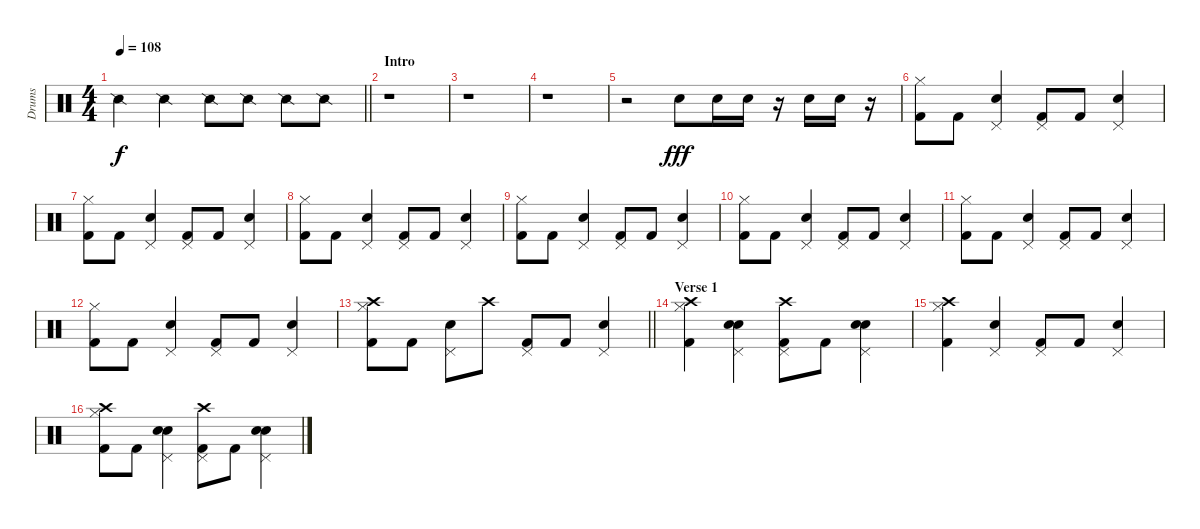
\track ("Drums" "Drums") {instrument percussion}
\staff {score}
\articulation defaults
\ts (4 4)
\tempo 108
\clef neutral
\barLineRight lightlight
\ks c "Snare (side stick) 2".4{dy f} "Snare (side stick) 2".4 "Snare (side stick) 2".8 "Snare (side stick) 2".8 "Snare (side stick) 2".8 "Snare (side stick) 2".8
|
\section ("" "Intro")
r.1 |
r.1 |
r.1 |
r.2 "Electric Snare (hit)".8{dy fff} "Electric Snare (hit)".16 "Electric Snare (hit)".16 r.16 "Electric Snare (hit)".16 "Electric Snare (hit)".16 r.16 |
("Hi-Hat (closed)" "Kick (hit) 2").8 "Kick (hit) 2".8 ("Electric Snare (hit)" "Pedal Hi-Hat (hit)").4 ("Pedal Hi-Hat (hit)" "Kick (hit) 2").8 "Kick (hit) 2".8 ("Electric Snare (hit)" "Pedal Hi-Hat (hit)").4 |
("Hi-Hat (closed)" "Kick (hit) 2").8 "Kick (hit) 2".8 ("Electric Snare (hit)" "Pedal Hi-Hat (hit)").4 ("Pedal Hi-Hat (hit)" "Kick (hit) 2").8 "Kick (hit) 2".8 ("Electric Snare (hit)" "Pedal Hi-Hat (hit)").4 |
("Hi-Hat (closed)" "Kick (hit) 2").8 "Kick (hit) 2".8 ("Electric Snare (hit)" "Pedal Hi-Hat (hit)").4 ("Pedal Hi-Hat (hit)" "Kick (hit) 2").8 "Kick (hit) 2".8 ("Electric Snare (hit)" "Pedal Hi-Hat (hit)").4 |
("Hi-Hat (closed)" "Kick (hit) 2").8 "Kick (hit) 2".8 ("Electric Snare (hit)" "Pedal Hi-Hat (hit)").4 ("Pedal Hi-Hat (hit)" "Kick (hit) 2").8 "Kick (hit) 2".8 ("Electric Snare (hit)" "Pedal Hi-Hat (hit)").4 |
("Hi-Hat (closed)" "Kick (hit) 2").8 "Kick (hit) 2".8 ("Electric Snare (hit)" "Pedal Hi-Hat (hit)").4 ("Pedal Hi-Hat (hit)" "Kick (hit) 2").8 "Kick (hit) 2".8 ("Electric Snare (hit)" "Pedal Hi-Hat (hit)").4 |
("Hi-Hat (closed)" "Kick (hit) 2").8 "Kick (hit) 2".8 ("Electric Snare (hit)" "Pedal Hi-Hat (hit)").4 ("Pedal Hi-Hat (hit)" "Kick (hit) 2").8 "Kick (hit) 2".8 ("Electric Snare (hit)" "Pedal Hi-Hat (hit)").4 |
("Hi-Hat (closed)" "Kick (hit) 2").8 "Kick (hit) 2".8 ("Electric Snare (hit)" "Pedal Hi-Hat (hit)").4 ("Pedal Hi-Hat (hit)" "Kick (hit) 2").8 "Kick (hit) 2".8 ("Electric Snare (hit)" "Pedal Hi-Hat (hit)").4 |
\barLineRight lightlight
("Hi-Hat (closed)" "Kick (hit) 2" "Crash high (hit)").8 "Kick (hit) 2".8 ("Electric Snare (hit)" "Pedal Hi-Hat (hit)").8 "Crash high (hit)".8 ("Pedal Hi-Hat (hit)" "Kick (hit) 2").8 "Kick (hit) 2".8 ("Electric Snare (hit)" "Pedal Hi-Hat (hit)").4 |
\section ("" "Verse 1")
("Hi-Hat (closed)" "Kick (hit) 2" "Crash high (hit)").4 ("Electric Snare (hit)" "Pedal Hi-Hat (hit)" "Snare (hit) 2").4 ("Pedal Hi-Hat (hit)" "Kick (hit) 2" "Crash high (hit)").8 "Kick (hit) 2".8 ("Electric Snare (hit)" "Pedal Hi-Hat (hit)" "Snare (hit) 2").4 |
("Hi-Hat (closed)" "Kick (hit) 2" "Crash high (hit)").4 ("Electric Snare (hit)" "Pedal Hi-Hat (hit)").4 ("Pedal Hi-Hat (hit)" "Kick (hit) 2").8 "Kick (hit) 2".8 ("Electric Snare (hit)" "Pedal Hi-Hat (hit)").4 |
("Hi-Hat (closed)" "Kick (hit) 2" "Crash high (hit)").8 "Kick (hit) 2".8 ("Electric Snare (hit)" "Pedal Hi-Hat (hit)" "Snare (hit) 2").4 ("Pedal Hi-Hat (hit)" "Kick (hit) 2" "Crash high (hit)").8 "Kick (hit) 2".8 ("Electric Snare (hit)" "Pedal Hi-Hat (hit)" "Snare (hit) 2").4
